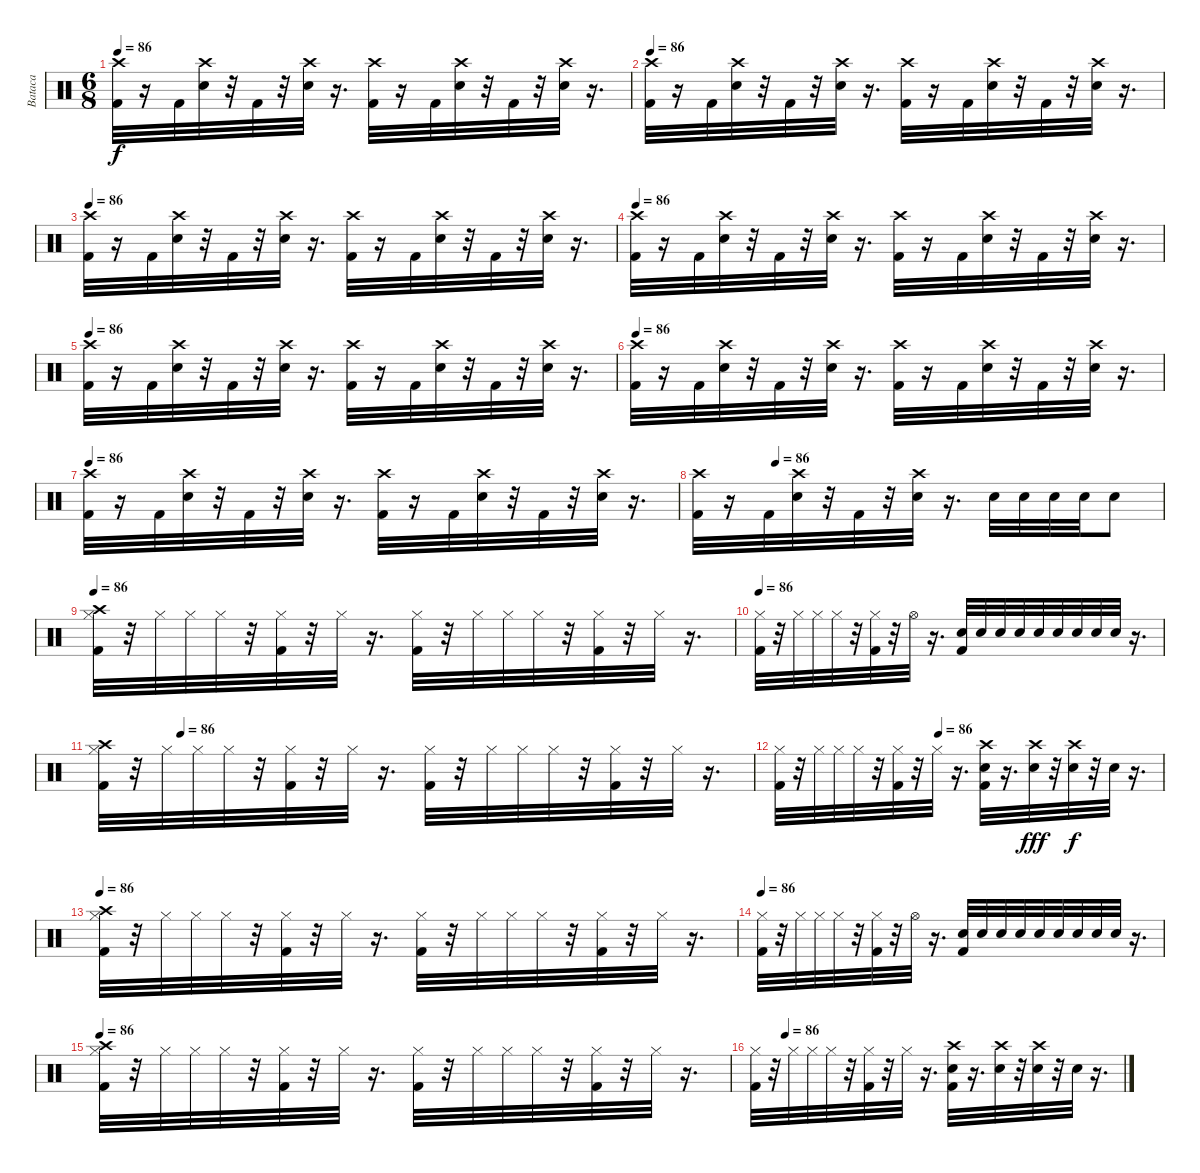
\track ("Bataca" "Bataca") {instrument percussion}
\staff {score}
\articulation defaults
\ts (6 8)
\tempo 86
\clef neutral
\ks c
("Crash high (hit)" "Kick (hit) 2").32{dy f} r.16 "Kick (hit) 2".32 ("Crash high (hit)" "Snare (hit) 2").32 r.32 "Kick (hit) 2".32 r.32 ("Crash high (hit)" "Snare (hit) 2").32 r.16{d} ("Crash high (hit)" "Kick (hit) 2").32 r.16 "Kick (hit) 2".32 ("Crash high (hit)" "Snare (hit) 2").32 r.32 "Kick (hit) 2".32 r.32 ("Crash high (hit)" "Snare (hit) 2").32 r.16{d} |
\tempo 86
("Crash high (hit)" "Kick (hit) 2").32 r.16 "Kick (hit) 2".32 ("Crash high (hit)" "Snare (hit) 2").32 r.32 "Kick (hit) 2".32 r.32 ("Crash high (hit)" "Snare (hit) 2").32 r.16{d} ("Crash high (hit)" "Kick (hit) 2").32 r.16 "Kick (hit) 2".32 ("Crash high (hit)" "Snare (hit) 2").32 r.32 "Kick (hit) 2".32 r.32 ("Crash high (hit)" "Snare (hit) 2").32 r.16{d} |
\tempo 86
("Crash high (hit)" "Kick (hit) 2").32 r.16 "Kick (hit) 2".32 ("Crash high (hit)" "Snare (hit) 2").32 r.32 "Kick (hit) 2".32 r.32 ("Crash high (hit)" "Snare (hit) 2").32 r.16{d} ("Crash high (hit)" "Kick (hit) 2").32 r.16 "Kick (hit) 2".32 ("Crash high (hit)" "Snare (hit) 2").32 r.32 "Kick (hit) 2".32 r.32 ("Crash high (hit)" "Snare (hit) 2").32 r.16{d} |
\tempo 86
("Crash high (hit)" "Kick (hit) 2").32 r.16 "Kick (hit) 2".32 ("Crash high (hit)" "Snare (hit) 2").32 r.32 "Kick (hit) 2".32 r.32 ("Crash high (hit)" "Snare (hit) 2").32 r.16{d} ("Crash high (hit)" "Kick (hit) 2").32 r.16 "Kick (hit) 2".32 ("Crash high (hit)" "Snare (hit) 2").32 r.32 "Kick (hit) 2".32 r.32 ("Crash high (hit)" "Snare (hit) 2").32 r.16{d} |
\tempo 86
("Crash high (hit)" "Kick (hit) 2").32 r.16 "Kick (hit) 2".32 ("Crash high (hit)" "Snare (hit) 2").32 r.32 "Kick (hit) 2".32 r.32 ("Crash high (hit)" "Snare (hit) 2").32 r.16{d} ("Crash high (hit)" "Kick (hit) 2").32 r.16 "Kick (hit) 2".32 ("Crash high (hit)" "Snare (hit) 2").32 r.32 "Kick (hit) 2".32 r.32 ("Crash high (hit)" "Snare (hit) 2").32 r.16{d} |
\tempo 86
("Crash high (hit)" "Kick (hit) 2").32 r.16 "Kick (hit) 2".32 ("Crash high (hit)" "Snare (hit) 2").32 r.32 "Kick (hit) 2".32 r.32 ("Crash high (hit)" "Snare (hit) 2").32 r.16{d} ("Crash high (hit)" "Kick (hit) 2").32 r.16 "Kick (hit) 2".32 ("Crash high (hit)" "Snare (hit) 2").32 r.32 "Kick (hit) 2".32 r.32 ("Crash high (hit)" "Snare (hit) 2").32 r.16{d} |
\tempo 86
("Crash high (hit)" "Kick (hit) 2").32 r.16 "Kick (hit) 2".32 ("Crash high (hit)" "Snare (hit) 2").32 r.32 "Kick (hit) 2".32 r.32 ("Crash high (hit)" "Snare (hit) 2").32 r.16{d} ("Crash high (hit)" "Kick (hit) 2").32 r.16 "Kick (hit) 2".32 ("Crash high (hit)" "Snare (hit) 2").32 r.32 "Kick (hit) 2".32 r.32 ("Crash high (hit)" "Snare (hit) 2").32 r.16{d} |
\tempo (86 0.16666666666666666)
("Crash high (hit)" "Kick (hit) 2").32 r.16 "Kick (hit) 2".32 ("Crash high (hit)" "Snare (hit) 2").32 r.32 "Kick (hit) 2".32 r.32 ("Crash high (hit)" "Snare (hit) 2").32 r.16{d} "Snare (hit) 2".32 "Snare (hit) 2".32 "Snare (hit) 2".32 "Snare (hit) 2".32 "Snare (hit) 2".8 |
\tempo 86
("Crash high (hit)" "Hi-Hat (closed)" "Kick (hit) 2").32 r.32 "Hi-Hat (closed)".32 "Hi-Hat (closed)".32 "Hi-Hat (closed)".32 r.32 ("Hi-Hat (closed)" "Kick (hit) 2").32 r.32 "Hi-Hat (closed)".32 r.16{d} ("Hi-Hat (closed)" "Kick (hit) 2").32 r.32 "Hi-Hat (closed)".32 "Hi-Hat (closed)".32 "Hi-Hat (closed)".32 r.32 ("Hi-Hat (closed)" "Kick (hit) 2").32 r.32 "Hi-Hat (closed)".32 r.16{d} |
\tempo 86
("Hi-Hat (closed)" "Kick (hit) 2").32 r.32 "Hi-Hat (closed)".32 "Hi-Hat (closed)".32 "Hi-Hat (closed)".32 r.32 ("Hi-Hat (closed)" "Kick (hit) 2").32 r.32 "Hi-Hat (open)".32 r.16{d} ("Snare (hit) 2" "Kick (hit) 2").32 "Snare (hit) 2".32 "Snare (hit) 2".32 "Snare (hit) 2".32 "Snare (hit) 2".32 "Snare (hit) 2".32 "Snare (hit) 2".32 "Snare (hit) 2".32 "Snare (hit) 2".32 r.16{d} |
\tempo (86 0.125)
("Crash high (hit)" "Hi-Hat (closed)" "Kick (hit) 2").32 r.32 "Hi-Hat (closed)".32 "Hi-Hat (closed)".32 "Hi-Hat (closed)".32 r.32 ("Hi-Hat (closed)" "Kick (hit) 2").32 r.32 "Hi-Hat (closed)".32 r.16{d} ("Hi-Hat (closed)" "Kick (hit) 2").32 r.32 "Hi-Hat (closed)".32 "Hi-Hat (closed)".32 "Hi-Hat (closed)".32 r.32 ("Hi-Hat (closed)" "Kick (hit) 2").32 r.32 "Hi-Hat (closed)".32 r.16{d} |
\tempo (86 0.4166666666666667)
("Hi-Hat (closed)" "Kick (hit) 2").32 r.32 "Hi-Hat (closed)".32 "Hi-Hat (closed)".32 "Hi-Hat (closed)".32 r.32 ("Hi-Hat (closed)" "Kick (hit) 2").32 r.32 "Hi-Hat (closed)".32 r.16{d} ("Crash high (hit)" "Snare (hit) 2" "Kick (hit) 2").32 r.16{d} ("Crash high (hit)" "Snare (hit) 2").32{dy fff} r.32 ("Crash high (hit)" "Snare (hit) 2").32{dy f} r.32 "Snare (hit) 2".32 r.16{d} |
\tempo 86
("Crash high (hit)" "Hi-Hat (closed)" "Kick (hit) 2").32 r.32 "Hi-Hat (closed)".32 "Hi-Hat (closed)".32 "Hi-Hat (closed)".32 r.32 ("Hi-Hat (closed)" "Kick (hit) 2").32 r.32 "Hi-Hat (closed)".32 r.16{d} ("Hi-Hat (closed)" "Kick (hit) 2").32 r.32 "Hi-Hat (closed)".32 "Hi-Hat (closed)".32 "Hi-Hat (closed)".32 r.32 ("Hi-Hat (closed)" "Kick (hit) 2").32 r.32 "Hi-Hat (closed)".32 r.16{d} |
\tempo 86
("Hi-Hat (closed)" "Kick (hit) 2").32 r.32 "Hi-Hat (closed)".32 "Hi-Hat (closed)".32 "Hi-Hat (closed)".32 r.32 ("Hi-Hat (closed)" "Kick (hit) 2").32 r.32 "Hi-Hat (open)".32 r.16{d} ("Snare (hit) 2" "Kick (hit) 2").32 "Snare (hit) 2".32 "Snare (hit) 2".32 "Snare (hit) 2".32 "Snare (hit) 2".32 "Snare (hit) 2".32 "Snare (hit) 2".32 "Snare (hit) 2".32 "Snare (hit) 2".32 r.16{d} |
\tempo 86
("Crash high (hit)" "Hi-Hat (closed)" "Kick (hit) 2").32 r.32 "Hi-Hat (closed)".32 "Hi-Hat (closed)".32 "Hi-Hat (closed)".32 r.32 ("Hi-Hat (closed)" "Kick (hit) 2").32 r.32 "Hi-Hat (closed)".32 r.16{d} ("Hi-Hat (closed)" "Kick (hit) 2").32 r.32 "Hi-Hat (closed)".32 "Hi-Hat (closed)".32 "Hi-Hat (closed)".32 r.32 ("Hi-Hat (closed)" "Kick (hit) 2").32 r.32 "Hi-Hat (closed)".32 r.16{d} |
\tempo (86 0.08333333333333333)
("Hi-Hat (closed)" "Kick (hit) 2").32 r.32 "Hi-Hat (closed)".32 "Hi-Hat (closed)".32 "Hi-Hat (closed)".32 r.32 ("Hi-Hat (closed)" "Kick (hit) 2").32 r.32 "Hi-Hat (closed)".32 r.16{d} ("Crash high (hit)" "Snare (hit) 2" "Kick (hit) 2").32 r.16{d} ("Crash high (hit)" "Snare (hit) 2").32 r.32 ("Crash high (hit)" "Snare (hit) 2").32 r.32 "Snare (hit) 2".32 r.16{d}
